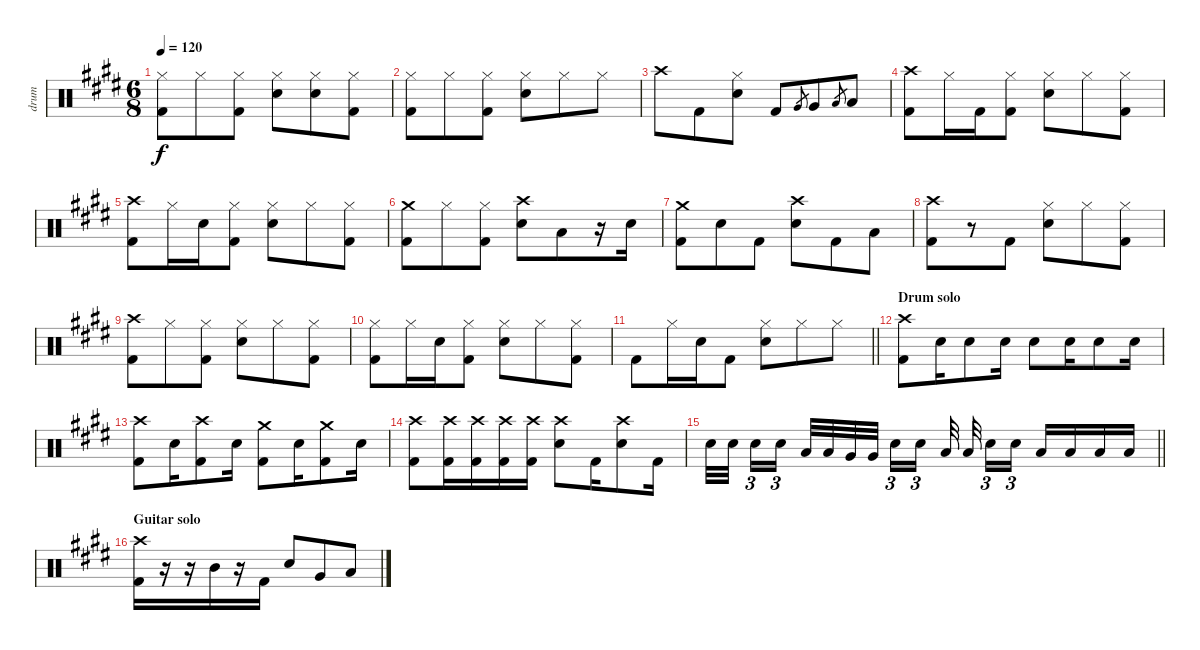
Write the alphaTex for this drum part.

\track ("drum" "drum") {instrument percussion}
\staff {score}
\articulation defaults
\ts (6 8)
\tempo 120
\clef neutral
\ks e
("Hi-Hat (closed)" "Kick (hit) 2").8{dy f} "Hi-Hat (closed)".8 ("Hi-Hat (closed)" "Kick (hit) 2").8 ("Hi-Hat (closed)" "Snare (hit) 2").8 ("Hi-Hat (closed)" "Snare (hit) 2").8 ("Hi-Hat (closed)" "Kick (hit) 2").8 |
("Hi-Hat (closed)" "Kick (hit) 2").8 "Hi-Hat (closed)".8 ("Hi-Hat (closed)" "Kick (hit) 2").8 ("Hi-Hat (closed)" "Snare (hit) 2").8 "Hi-Hat (closed)".8 "Hi-Hat (closed)".8 |
"Crash high (hit)".8 "Kick (hit) 2".8 ("Hi-Hat (closed)" "Snare (hit) 2").8 "Kick (hit) 2".8 "Very Low Tom (hit)".8{gr} "Very Low Tom (hit)".8 "Low Floor Tom (hit)".8{gr} "Low Floor Tom (hit)".8 |
("Crash high (hit)" "Kick (hit) 2").8 "Hi-Hat (closed)".16 "Kick (hit) 2".16 ("Hi-Hat (closed)" "Kick (hit) 2").8 ("Hi-Hat (closed)" "Snare (hit) 2").8 "Hi-Hat (closed)".8 ("Hi-Hat (closed)" "Kick (hit) 2").8 |
("Crash high (hit)" "Kick (hit) 2").8 "Hi-Hat (closed)".16 "Snare (hit) 2".16 ("Hi-Hat (closed)" "Kick (hit) 2").8 ("Hi-Hat (closed)" "Snare (hit) 2").8 "Hi-Hat (closed)".8 ("Hi-Hat (closed)" "Kick (hit) 2").8 |
("Crash medium (hit)" "Kick (hit) 2").8 "Hi-Hat (closed)".8 ("Hi-Hat (closed)" "Kick (hit) 2").8 ("Crash high (hit)" "Snare (hit) 2").8 "Low Tom (hit)".8 r.16 "Snare (hit) 2".16 |
("Crash medium (hit)" "Kick (hit) 2").8 "Snare (hit) 2".8 "Kick (hit) 2".8 ("Crash high (hit)" "Snare (hit) 2").8 "Kick (hit) 2".8 "Low Floor Tom (hit)".8 |
("Crash high (hit)" "Kick (hit) 2").8 r.8 "Kick (hit) 2".8 ("Hi-Hat (closed)" "Snare (hit) 2").8 "Hi-Hat (closed)".8 ("Hi-Hat (closed)" "Kick (hit) 2").8 |
("Crash high (hit)" "Kick (hit) 2").8 "Hi-Hat (closed)".8 ("Hi-Hat (closed)" "Kick (hit) 2").8 ("Hi-Hat (closed)" "Snare (hit) 2").8 "Hi-Hat (closed)".8 ("Hi-Hat (closed)" "Kick (hit) 2").8 |
("Hi-Hat (closed)" "Kick (hit) 2").8 "Hi-Hat (closed)".16 "Snare (hit) 2".16 ("Hi-Hat (closed)" "Kick (hit) 2").8 ("Hi-Hat (closed)" "Snare (hit) 2").8 "Hi-Hat (closed)".8 ("Hi-Hat (closed)" "Kick (hit) 2").8 |
\barLineRight lightlight "Kick (hit) 2".8 "Hi-Hat (closed)".16 "Snare (hit) 2".16 "Kick (hit) 2".8
("Hi-Hat (closed)" "Snare (hit) 2").8 "Hi-Hat (closed)".8 "Hi-Hat (closed)".8 |
\section ("" "Drum solo")
("Crash high (hit)" "Kick (hit) 2").8 "Snare (hit) 2".16 "Snare (hit) 2".8 "Snare (hit) 2".16 "Snare (hit) 2".8 "Snare (hit) 2".16 "Snare (hit) 2".8 "Snare (hit) 2".16 |
("Crash high (hit)" "Kick (hit) 2").8 "Snare (hit) 2".16 ("Crash high (hit)" "Kick (hit) 2").8 "Snare (hit) 2".16 ("Crash medium (hit)" "Kick (hit) 2").8 "Snare (hit) 2".16 ("Crash medium (hit)" "Kick (hit) 2").8 "Snare (hit) 2".16 |
("Crash high (hit)" "Kick (hit) 2").8 ("Crash high (hit)" "Kick (hit) 2").16 ("Crash high (hit)" "Kick (hit) 2").16 ("Crash high (hit)" "Kick (hit) 2").16 ("Crash high (hit)" "Kick (hit) 2").16 ("Crash high (hit)" "Snare (hit) 2").8 "Kick (hit) 2".16 ("Crash high (hit)" "Snare (hit) 2").8 "Kick (hit) 2".16 |
\barLineRight lightlight "Snare (hit) 2".32 "Snare (hit) 2".32{beam splitsecondary} "Snare (hit) 2".16{tu (3 2)} "Snare (hit) 2".16{tu (3 2) beam splitsecondary} "Low Floor Tom (hit)".32 "Low Floor Tom (hit)".32 "Very Low Tom (hit)".32 "Very Low Tom (hit)".32{beam splitsecondary} "Snare (hit) 2".16{tu (3 2)} "Snare (hit) 2".16{tu (3 2) beam splitsecondary} "Low Floor Tom (hit)".32 "Low Floor Tom (hit)".32{beam splitsecondary} "Snare (hit) 2".16{tu (3 2)} "Snare (hit) 2".16{tu (3 2) beam splitsecondary} "Low Tom (hit)".16 "Low Tom (hit)".16 "Low Floor Tom (hit)".16 "Low Floor Tom (hit)".16
|
\section ("" "Guitar solo")
("Crash high (hit)" "Kick (hit) 2").16 r.16 r.16 "Mid Tom (hit)".16 r.16 "Kick (hit) 2".16 "Snare (hit) 2".8 "Very Low Tom (hit)".8 "Low Floor Tom (hit)".8
